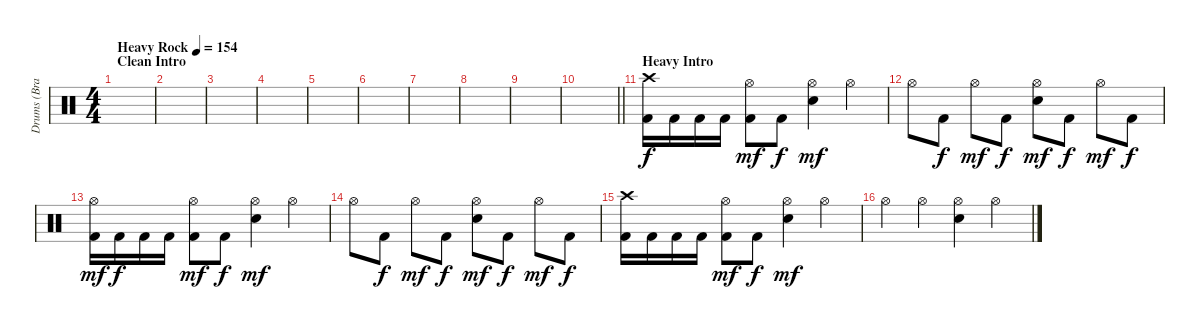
\track ("Drums (Brandon Saller)" "Drums (Bra") {instrument percussion}
\staff {score}
\articulation defaults
\ts (4 4)
\section ("" "Clean Intro")
\tempo (154 "Heavy Rock")
\clef neutral
\ks c
|
|
|
|
|
|
|
|
|
\barLineRight lightlight
|
\section ("" "Heavy Intro")
("Crash high (hit)" "Kick (hit) 2").16 "Kick (hit) 2".16 "Kick (hit) 2".16 "Kick (hit) 2".16 ("Hi-Hat (open)" "Kick (hit) 2").8{dy mf} "Kick (hit) 2".8{dy f} ("Hi-Hat (open)" "Electric Snare (hit)").4{dy mf} "Hi-Hat (open)".4 |
"Hi-Hat (open)".8 "Kick (hit) 2".8{dy f} "Hi-Hat (open)".8{dy mf} "Kick (hit) 2".8{dy f} ("Hi-Hat (open)" "Electric Snare (hit)").8{dy mf} "Kick (hit) 2".8{dy f} "Hi-Hat (open)".8{dy mf} "Kick (hit) 2".8{dy f} |
("Hi-Hat (open)" "Kick (hit) 2").16{dy mf} "Kick (hit) 2".16{dy f} "Kick (hit) 2".16 "Kick (hit) 2".16 ("Hi-Hat (open)" "Kick (hit) 2").8{dy mf} "Kick (hit) 2".8{dy f} ("Hi-Hat (open)" "Electric Snare (hit)").4{dy mf} "Hi-Hat (open)".4 |
"Hi-Hat (open)".8 "Kick (hit) 2".8{dy f} "Hi-Hat (open)".8{dy mf} "Kick (hit) 2".8{dy f} ("Hi-Hat (open)" "Electric Snare (hit)").8{dy mf} "Kick (hit) 2".8{dy f} "Hi-Hat (open)".8{dy mf} "Kick (hit) 2".8{dy f} |
("Crash high (hit)" "Kick (hit) 2").16 "Kick (hit) 2".16 "Kick (hit) 2".16 "Kick (hit) 2".16 ("Hi-Hat (open)" "Kick (hit) 2").8{dy mf} "Kick (hit) 2".8{dy f} ("Hi-Hat (open)" "Electric Snare (hit)").4{dy mf} "Hi-Hat (open)".4 |
"Hi-Hat (open)".4 "Hi-Hat (open)".4 ("Hi-Hat (open)" "Electric Snare (hit)").4 "Hi-Hat (open)".4
